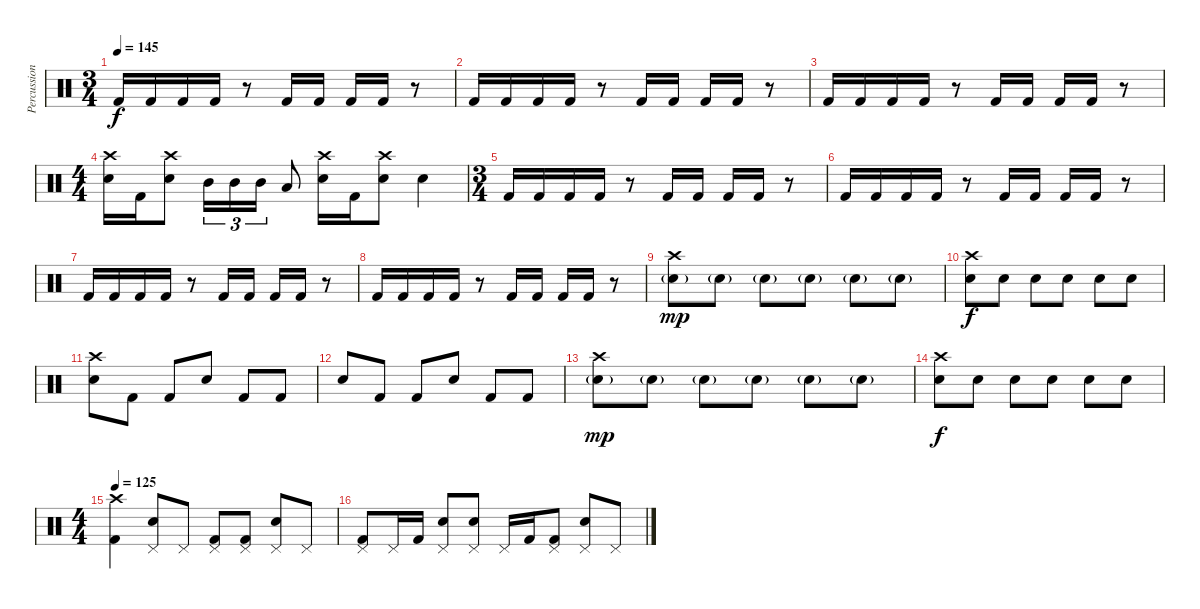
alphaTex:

\track ("Percussion" "Percussion") {instrument percussion}
\staff {score}
\articulation defaults
\ts (3 4)
\tempo 145
\clef neutral
\ks c "Kick (hit) 2".16{dy f} "Kick (hit) 2".16 "Kick (hit) 2".16 "Kick (hit) 2".16
r.8 "Kick (hit) 2".16 "Kick (hit) 2".16 "Kick (hit) 2".16 "Kick (hit) 2".16 r.8 |
"Kick (hit) 2".16 "Kick (hit) 2".16 "Kick (hit) 2".16 "Kick (hit) 2".16 r.8 "Kick (hit) 2".16 "Kick (hit) 2".16 "Kick (hit) 2".16 "Kick (hit) 2".16 r.8 |
"Kick (hit) 2".16 "Kick (hit) 2".16 "Kick (hit) 2".16 "Kick (hit) 2".16 r.8 "Kick (hit) 2".16 "Kick (hit) 2".16 "Kick (hit) 2".16 "Kick (hit) 2".16 r.8 |
\ts (4 4)
("Crash high (hit)" "Electric Snare (hit)").16 "Kick (hit) 2".16 ("Crash high (hit)" "Electric Snare (hit)").8 "Mid Tom (hit)".16{tu (3 2)} "Mid Tom (hit)".16{tu (3 2)} "Mid Tom (hit)".16{tu (3 2)} "Low Tom (hit)".8 ("Crash high (hit)" "Electric Snare (hit)").16 "Kick (hit) 2".16 ("Crash high (hit)" "Electric Snare (hit)").8 "Electric Snare (hit)".4 |
\ts (3 4)
"Kick (hit) 2".16 "Kick (hit) 2".16 "Kick (hit) 2".16 "Kick (hit) 2".16 r.8 "Kick (hit) 2".16 "Kick (hit) 2".16 "Kick (hit) 2".16 "Kick (hit) 2".16 r.8 |
"Kick (hit) 2".16 "Kick (hit) 2".16 "Kick (hit) 2".16 "Kick (hit) 2".16 r.8 "Kick (hit) 2".16 "Kick (hit) 2".16 "Kick (hit) 2".16 "Kick (hit) 2".16 r.8 |
"Kick (hit) 2".16 "Kick (hit) 2".16 "Kick (hit) 2".16 "Kick (hit) 2".16 r.8 "Kick (hit) 2".16 "Kick (hit) 2".16 "Kick (hit) 2".16 "Kick (hit) 2".16 r.8 |
"Kick (hit) 2".16 "Kick (hit) 2".16 "Kick (hit) 2".16 "Kick (hit) 2".16 r.8 "Kick (hit) 2".16 "Kick (hit) 2".16 "Kick (hit) 2".16 "Kick (hit) 2".16 r.8 |
("Crash high (hit)" "Electric Snare (hit)"{g}).8{dy mp} "Electric Snare (hit)"{g}.8 "Electric Snare (hit)"{g}.8 "Electric Snare (hit)"{g}.8 "Electric Snare (hit)"{g}.8 "Electric Snare (hit)"{g}.8 |
("Crash high (hit)" "Electric Snare (hit)").8{dy f} "Electric Snare (hit)".8 "Electric Snare (hit)".8 "Electric Snare (hit)".8 "Electric Snare (hit)".8 "Electric Snare (hit)".8 |
("Crash high (hit)" "Electric Snare (hit)").8 "Kick (hit) 2".8 "Kick (hit) 2".8 "Electric Snare (hit)".8 "Kick (hit) 2".8 "Kick (hit) 2".8 |
"Electric Snare (hit)".8 "Kick (hit) 2".8 "Kick (hit) 2".8 "Electric Snare (hit)".8 "Kick (hit) 2".8 "Kick (hit) 2".8 |
("Crash high (hit)" "Electric Snare (hit)"{g}).8{dy mp} "Electric Snare (hit)"{g}.8 "Electric Snare (hit)"{g}.8 "Electric Snare (hit)"{g}.8 "Electric Snare (hit)"{g}.8 "Electric Snare (hit)"{g}.8 |
("Crash high (hit)" "Electric Snare (hit)").8{dy f} "Electric Snare (hit)".8 "Electric Snare (hit)".8 "Electric Snare (hit)".8 "Electric Snare (hit)".8 "Electric Snare (hit)".8 |
\ts (4 4)
\tempo 125
("Crash high (hit)" "Kick (hit) 2").4 ("Pedal Hi-Hat (hit)" "Electric Snare (hit)").8 "Pedal Hi-Hat (hit)".8 ("Pedal Hi-Hat (hit)" "Kick (hit) 2").8 ("Pedal Hi-Hat (hit)" "Kick (hit) 2").8 ("Pedal Hi-Hat (hit)" "Electric Snare (hit)").8 "Pedal Hi-Hat (hit)".8 |
("Pedal Hi-Hat (hit)" "Kick (hit) 2").8 "Pedal Hi-Hat (hit)".16 "Kick (hit) 2".16 ("Pedal Hi-Hat (hit)" "Electric Snare (hit)").8 ("Pedal Hi-Hat (hit)" "Electric Snare (hit)").8 "Pedal Hi-Hat (hit)".16 "Kick (hit) 2".16 ("Pedal Hi-Hat (hit)" "Kick (hit) 2").8 ("Pedal Hi-Hat (hit)" "Electric Snare (hit)").8 "Pedal Hi-Hat (hit)".8
